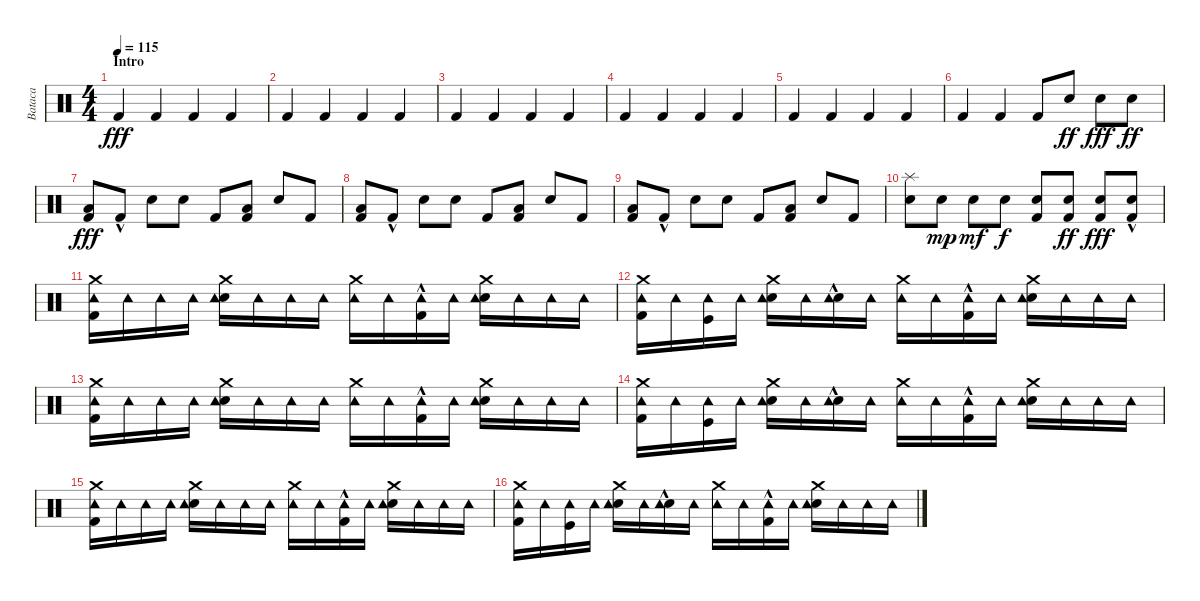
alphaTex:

\track ("Bataca" "Bataca") {instrument percussion}
\staff {score}
\articulation defaults
\ts (4 4)
\section ("" "Intro")
\tempo 115
\clef neutral
\ks c "Kick (hit) 2".4{dy fff} "Kick (hit) 2".4 "Kick (hit) 2".4 "Kick (hit) 2".4
|
"Kick (hit) 2".4 "Kick (hit) 2".4 "Kick (hit) 2".4 "Kick (hit) 2".4 |
"Kick (hit) 2".4 "Kick (hit) 2".4 "Kick (hit) 2".4 "Kick (hit) 2".4 |
"Kick (hit) 2".4 "Kick (hit) 2".4 "Kick (hit) 2".4 "Kick (hit) 2".4 |
"Kick (hit) 2".4 "Kick (hit) 2".4 "Kick (hit) 2".4 "Kick (hit) 2".4 |
"Kick (hit) 2".4 "Kick (hit) 2".4 "Kick (hit) 2".8 "Snare (hit) 2".8{dy ff} "Snare (hit) 2".8{dy fff} "Snare (hit) 2".8{dy ff} |
("Kick (hit) 2" "Low Floor Tom (hit)").8{dy fff} "Kick (hit) 2"{hac}.8 "Snare (hit) 2".8 "Snare (hit) 2".8 "Kick (hit) 2".8 ("Kick (hit) 2" "Low Floor Tom (hit)").8 "Snare (hit) 2".8 "Kick (hit) 2".8 |
("Kick (hit) 2" "Low Floor Tom (hit)").8 "Kick (hit) 2"{hac}.8 "Snare (hit) 2".8 "Snare (hit) 2".8 "Kick (hit) 2".8 ("Kick (hit) 2" "Low Floor Tom (hit)").8 "Snare (hit) 2".8 "Kick (hit) 2".8 |
("Kick (hit) 2" "Low Floor Tom (hit)").8 "Kick (hit) 2"{hac}.8 "Snare (hit) 2".8 "Snare (hit) 2".8 "Kick (hit) 2".8 ("Kick (hit) 2" "Low Floor Tom (hit)").8 "Snare (hit) 2".8 "Kick (hit) 2".8 |
("Snare (hit) 2" "Splash (hit)").8 "Snare (hit) 2".8{dy mp} "Snare (hit) 2".8{dy mf} "Snare (hit) 2".8{dy f} ("Kick (hit) 2" "Snare (hit) 2").8 ("Kick (hit) 2" "Snare (hit) 2").8{dy ff} ("Kick (hit) 2" "Snare (hit) 2").8{dy fff} ("Kick (hit) 2" "Snare (hit) 2"{hac}).8 |
("Kick (hit) 2" "Tambourine (hit)" "Crash medium (hit)").16 "Tambourine (hit)".16 "Tambourine (hit)".16 "Tambourine (hit)".16 ("Snare (hit) 2" "Tambourine (hit)" "Crash medium (hit)").16 "Tambourine (hit)".16 "Tambourine (hit)".16 "Tambourine (hit)".16 ("Tambourine (hit)" "Crash medium (hit)").16 "Tambourine (hit)".16 ("Kick (hit) 2"{hac} "Tambourine (hit)").16 "Tambourine (hit)".16 ("Snare (hit) 2" "Tambourine (hit)" "Crash medium (hit)").16 "Tambourine (hit)".16 "Tambourine (hit)".16 "Tambourine (hit)".16 |
("Kick (hit) 2" "Tambourine (hit)" "Crash medium (hit)").16 "Tambourine (hit)".16 ("Kick (hit)" "Tambourine (hit)").16 "Tambourine (hit)".16 ("Snare (hit) 2" "Tambourine (hit)" "Crash medium (hit)").16 "Tambourine (hit)".16 ("Snare (hit) 2"{hac} "Tambourine (hit)").16 "Tambourine (hit)".16 ("Tambourine (hit)" "Crash medium (hit)").16 "Tambourine (hit)".16 ("Kick (hit) 2"{hac} "Tambourine (hit)").16 "Tambourine (hit)".16 ("Snare (hit) 2" "Tambourine (hit)" "Crash medium (hit)").16 "Tambourine (hit)".16 "Tambourine (hit)".16 "Tambourine (hit)".16 |
("Kick (hit) 2" "Tambourine (hit)" "Crash medium (hit)").16 "Tambourine (hit)".16 "Tambourine (hit)".16 "Tambourine (hit)".16 ("Snare (hit) 2" "Tambourine (hit)" "Crash medium (hit)").16 "Tambourine (hit)".16 "Tambourine (hit)".16 "Tambourine (hit)".16 ("Tambourine (hit)" "Crash medium (hit)").16 "Tambourine (hit)".16 ("Kick (hit) 2"{hac} "Tambourine (hit)").16 "Tambourine (hit)".16 ("Snare (hit) 2" "Tambourine (hit)" "Crash medium (hit)").16 "Tambourine (hit)".16 "Tambourine (hit)".16 "Tambourine (hit)".16 |
("Kick (hit) 2" "Tambourine (hit)" "Crash medium (hit)").16 "Tambourine (hit)".16 ("Kick (hit)" "Tambourine (hit)").16 "Tambourine (hit)".16 ("Snare (hit) 2" "Tambourine (hit)" "Crash medium (hit)").16 "Tambourine (hit)".16 ("Snare (hit) 2"{hac} "Tambourine (hit)").16 "Tambourine (hit)".16 ("Tambourine (hit)" "Crash medium (hit)").16 "Tambourine (hit)".16 ("Kick (hit) 2"{hac} "Tambourine (hit)").16 "Tambourine (hit)".16 ("Snare (hit) 2" "Tambourine (hit)" "Crash medium (hit)").16 "Tambourine (hit)".16 "Tambourine (hit)".16 "Tambourine (hit)".16 |
("Kick (hit) 2" "Tambourine (hit)" "Crash medium (hit)").16 "Tambourine (hit)".16 "Tambourine (hit)".16 "Tambourine (hit)".16 ("Snare (hit) 2" "Tambourine (hit)" "Crash medium (hit)").16 "Tambourine (hit)".16 "Tambourine (hit)".16 "Tambourine (hit)".16 ("Tambourine (hit)" "Crash medium (hit)").16 "Tambourine (hit)".16 ("Kick (hit) 2"{hac} "Tambourine (hit)").16 "Tambourine (hit)".16 ("Snare (hit) 2" "Tambourine (hit)" "Crash medium (hit)").16 "Tambourine (hit)".16 "Tambourine (hit)".16 "Tambourine (hit)".16 |
("Kick (hit) 2" "Tambourine (hit)" "Crash medium (hit)").16 "Tambourine (hit)".16 ("Kick (hit)" "Tambourine (hit)").16 "Tambourine (hit)".16 ("Snare (hit) 2" "Tambourine (hit)" "Crash medium (hit)").16 "Tambourine (hit)".16 ("Snare (hit) 2"{hac} "Tambourine (hit)").16 "Tambourine (hit)".16 ("Tambourine (hit)" "Crash medium (hit)").16 "Tambourine (hit)".16 ("Kick (hit) 2"{hac} "Tambourine (hit)").16 "Tambourine (hit)".16 ("Snare (hit) 2" "Tambourine (hit)" "Crash medium (hit)").16 "Tambourine (hit)".16 "Tambourine (hit)".16 "Tambourine (hit)".16
